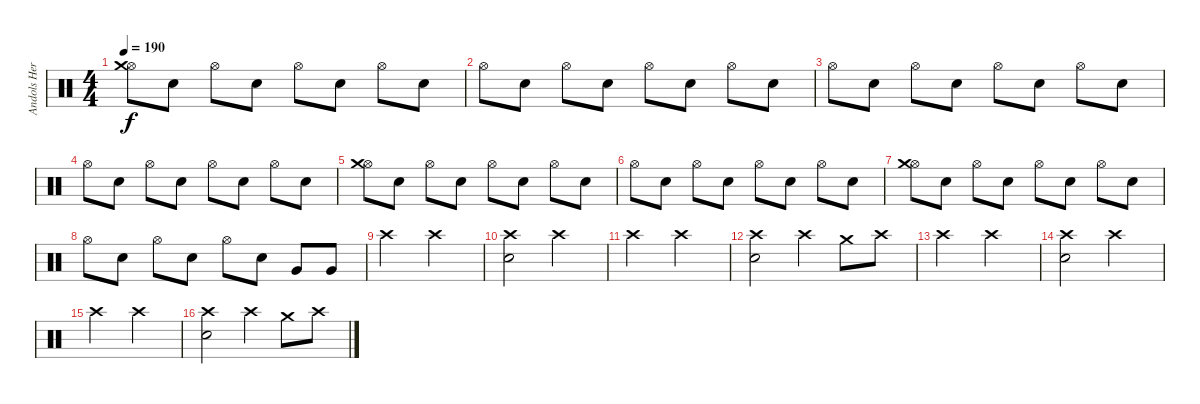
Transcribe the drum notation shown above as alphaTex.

\track ("Andols Herrick" "Andols Her") {instrument percussion}
\staff {score}
\articulation defaults
\ts (4 4)
\tempo 190
\clef neutral
\ks c
("Hi-Hat (open)" "Crash medium (hit)").8{dy f} "Electric Snare (hit)".8 "Hi-Hat (open)".8 "Electric Snare (hit)".8 "Hi-Hat (open)".8 "Electric Snare (hit)".8 "Hi-Hat (open)".8 "Electric Snare (hit)".8 |
"Hi-Hat (open)".8 "Electric Snare (hit)".8 "Hi-Hat (open)".8 "Electric Snare (hit)".8 "Hi-Hat (open)".8 "Electric Snare (hit)".8 "Hi-Hat (open)".8 "Electric Snare (hit)".8 |
"Hi-Hat (open)".8 "Electric Snare (hit)".8 "Hi-Hat (open)".8 "Electric Snare (hit)".8 "Hi-Hat (open)".8 "Electric Snare (hit)".8 "Hi-Hat (open)".8 "Electric Snare (hit)".8 |
"Hi-Hat (open)".8 "Electric Snare (hit)".8 "Hi-Hat (open)".8 "Electric Snare (hit)".8 "Hi-Hat (open)".8 "Electric Snare (hit)".8 "Hi-Hat (open)".8 "Electric Snare (hit)".8 |
("Hi-Hat (open)" "Crash medium (hit)").8 "Electric Snare (hit)".8 "Hi-Hat (open)".8 "Electric Snare (hit)".8 "Hi-Hat (open)".8 "Electric Snare (hit)".8 "Hi-Hat (open)".8 "Electric Snare (hit)".8 |
"Hi-Hat (open)".8 "Electric Snare (hit)".8 "Hi-Hat (open)".8 "Electric Snare (hit)".8 "Hi-Hat (open)".8 "Electric Snare (hit)".8 "Hi-Hat (open)".8 "Electric Snare (hit)".8 |
("Hi-Hat (open)" "Crash medium (hit)").8 "Electric Snare (hit)".8 "Hi-Hat (open)".8 "Electric Snare (hit)".8 "Hi-Hat (open)".8 "Electric Snare (hit)".8 "Hi-Hat (open)".8 "Electric Snare (hit)".8 |
"Hi-Hat (open)".8 "Electric Snare (hit)".8 "Hi-Hat (open)".8 "Electric Snare (hit)".8 "Hi-Hat (open)".8 "Electric Snare (hit)".8 "Very Low Tom (hit)".8 "Very Low Tom (hit)".8 |
"Crash high (hit)".2 "Crash high (hit)".2 |
("Crash high (hit)" "Electric Snare (hit)").2 "Crash high (hit)".2 |
"Crash high (hit)".2 "Crash high (hit)".2 |
("Crash high (hit)" "Electric Snare (hit)").2 "Crash high (hit)".4 "Crash medium (hit)".8 "Crash high (hit)".8 |
"Crash high (hit)".2 "Crash high (hit)".2 |
("Crash high (hit)" "Electric Snare (hit)").2 "Crash high (hit)".2 |
"Crash high (hit)".2 "Crash high (hit)".2 |
("Crash high (hit)" "Electric Snare (hit)").2 "Crash high (hit)".4 "Crash medium (hit)".8 "Crash high (hit)".8
